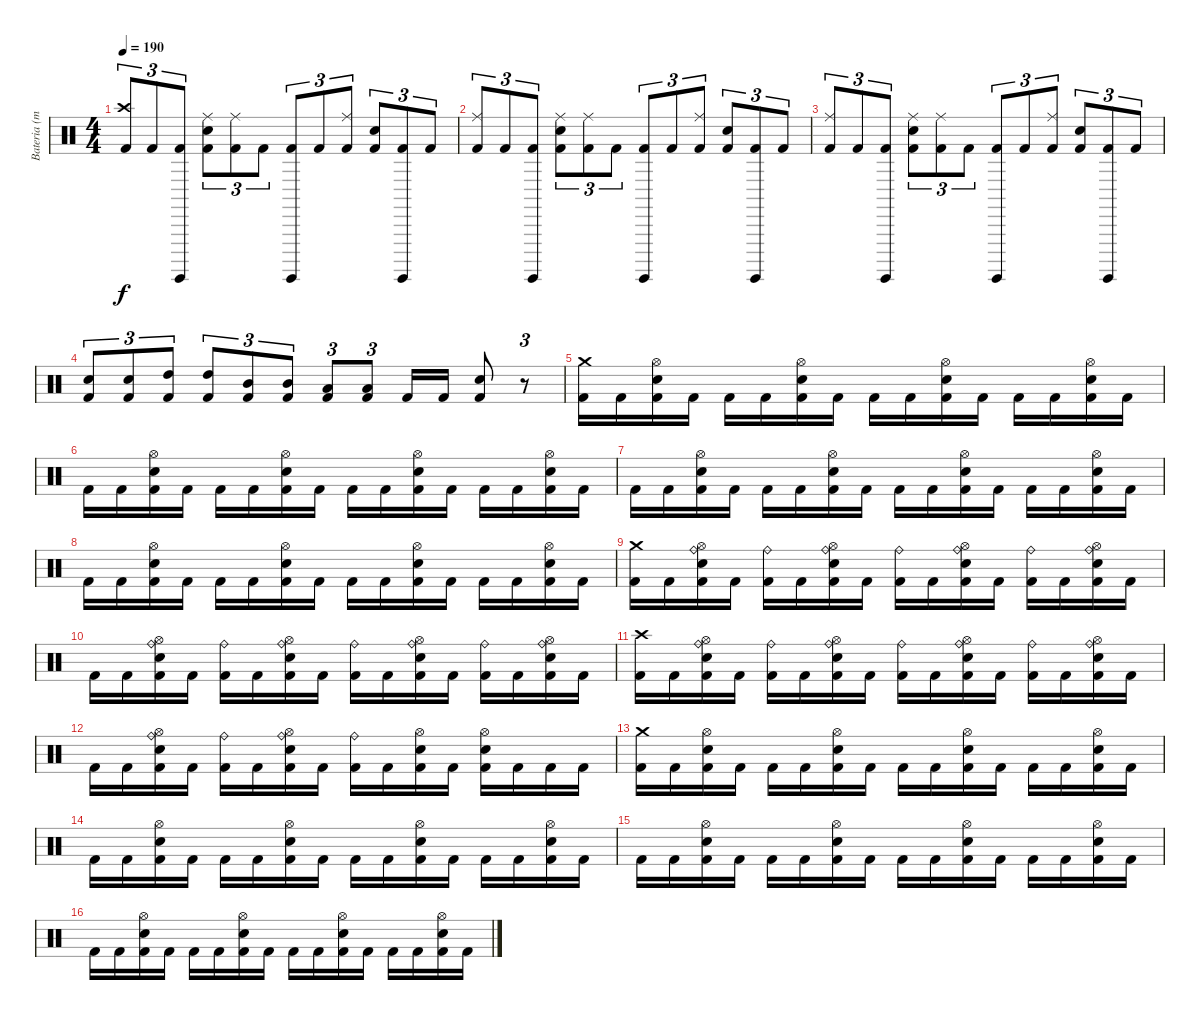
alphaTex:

\track ("Bateria (mestre Aquiles Priester)" "Bateria (m") {instrument percussion}
\staff {score}
\articulation defaults
\ts (4 4)
\tempo 190
\clef neutral
\ks c
("Kick (hit) 2" "Crash high (hit)").8{tu (3 2) dy f} "Kick (hit) 2".8{tu (3 2)} ("Kick (hit) 2" "Surdo (hit)").8{tu (3 2)} ("Kick (hit) 2" "Electric Snare (hit)" "Ride (middle)").8{tu (3 2)} ("Kick (hit) 2" "Ride (middle)").8{tu (3 2)} "Kick (hit) 2".8{tu (3 2)} ("Kick (hit) 2" "Surdo (hit)").8{tu (3 2)} "Kick (hit) 2".8{tu (3 2)} ("Kick (hit) 2" "Ride (middle)").8{tu (3 2)} ("Kick (hit) 2" "Electric Snare (hit)").8{tu (3 2)} ("Kick (hit) 2" "Surdo (hit)").8{tu (3 2)} "Kick (hit) 2".8{tu (3 2)} |
("Kick (hit) 2" "Ride (middle)").8{tu (3 2)} "Kick (hit) 2".8{tu (3 2)} ("Kick (hit) 2" "Surdo (hit)").8{tu (3 2)} ("Kick (hit) 2" "Electric Snare (hit)" "Ride (middle)").8{tu (3 2)} ("Kick (hit) 2" "Ride (middle)").8{tu (3 2)} "Kick (hit) 2".8{tu (3 2)} ("Kick (hit) 2" "Surdo (hit)").8{tu (3 2)} "Kick (hit) 2".8{tu (3 2)} ("Kick (hit) 2" "Ride (middle)").8{tu (3 2)} ("Kick (hit) 2" "Electric Snare (hit)").8{tu (3 2)} ("Kick (hit) 2" "Surdo (hit)").8{tu (3 2)} "Kick (hit) 2".8{tu (3 2)} |
("Kick (hit) 2" "Ride (middle)").8{tu (3 2)} "Kick (hit) 2".8{tu (3 2)} ("Kick (hit) 2" "Surdo (hit)").8{tu (3 2)} ("Kick (hit) 2" "Electric Snare (hit)" "Ride (middle)").8{tu (3 2)} ("Kick (hit) 2" "Ride (middle)").8{tu (3 2)} "Kick (hit) 2".8{tu (3 2)} ("Kick (hit) 2" "Surdo (hit)").8{tu (3 2)} "Kick (hit) 2".8{tu (3 2)} ("Kick (hit) 2" "Ride (middle)").8{tu (3 2)} ("Kick (hit) 2" "Electric Snare (hit)").8{tu (3 2)} ("Kick (hit) 2" "Surdo (hit)").8{tu (3 2)} "Kick (hit) 2".8{tu (3 2)} |
("Kick (hit) 2" "Electric Snare (hit)").8{tu (3 2)} ("Kick (hit) 2" "Electric Snare (hit)").8{tu (3 2)} ("Kick (hit) 2" "High Tom (hit)").8{tu (3 2)} ("Kick (hit) 2" "High Tom (hit)").8{tu (3 2)} ("Kick (hit) 2" "Mid Tom (hit)").8{tu (3 2)} ("Kick (hit) 2" "Mid Tom (hit)").8{tu (3 2)} ("Kick (hit) 2" "Low Tom (hit)").8{tu (3 2)} ("Kick (hit) 2" "Low Tom (hit)").8{tu (3 2)} "Kick (hit) 2".16 "Kick (hit) 2".16 ("Kick (hit) 2" "Electric Snare (hit)").8 r.8{tu (3 2)} |
("Kick (hit) 2" "Crash medium (hit)").16 "Kick (hit) 2".16 ("Kick (hit) 2" "Electric Snare (hit)" "Hi-Hat (open)").16 "Kick (hit) 2".16 "Kick (hit) 2".16 "Kick (hit) 2".16 ("Kick (hit) 2" "Electric Snare (hit)" "Hi-Hat (open)").16 "Kick (hit) 2".16 "Kick (hit) 2".16 "Kick (hit) 2".16 ("Kick (hit) 2" "Electric Snare (hit)" "Hi-Hat (open)").16 "Kick (hit) 2".16 "Kick (hit) 2".16 "Kick (hit) 2".16 ("Kick (hit) 2" "Electric Snare (hit)" "Hi-Hat (open)").16 "Kick (hit) 2".16 |
"Kick (hit) 2".16 "Kick (hit) 2".16 ("Kick (hit) 2" "Electric Snare (hit)" "Hi-Hat (open)").16 "Kick (hit) 2".16 "Kick (hit) 2".16 "Kick (hit) 2".16 ("Kick (hit) 2" "Electric Snare (hit)" "Hi-Hat (open)").16 "Kick (hit) 2".16 "Kick (hit) 2".16 "Kick (hit) 2".16 ("Kick (hit) 2" "Electric Snare (hit)" "Hi-Hat (open)").16 "Kick (hit) 2".16 "Kick (hit) 2".16 "Kick (hit) 2".16 ("Kick (hit) 2" "Electric Snare (hit)" "Hi-Hat (open)").16 "Kick (hit) 2".16 |
"Kick (hit) 2".16 "Kick (hit) 2".16 ("Kick (hit) 2" "Electric Snare (hit)" "Hi-Hat (open)").16 "Kick (hit) 2".16 "Kick (hit) 2".16 "Kick (hit) 2".16 ("Kick (hit) 2" "Electric Snare (hit)" "Hi-Hat (open)").16 "Kick (hit) 2".16 "Kick (hit) 2".16 "Kick (hit) 2".16 ("Kick (hit) 2" "Electric Snare (hit)" "Hi-Hat (open)").16 "Kick (hit) 2".16 "Kick (hit) 2".16 "Kick (hit) 2".16 ("Kick (hit) 2" "Electric Snare (hit)" "Hi-Hat (open)").16 "Kick (hit) 2".16 |
"Kick (hit) 2".16 "Kick (hit) 2".16 ("Kick (hit) 2" "Electric Snare (hit)" "Hi-Hat (open)").16 "Kick (hit) 2".16 "Kick (hit) 2".16 "Kick (hit) 2".16 ("Kick (hit) 2" "Electric Snare (hit)" "Hi-Hat (open)").16 "Kick (hit) 2".16 "Kick (hit) 2".16 "Kick (hit) 2".16 ("Kick (hit) 2" "Electric Snare (hit)" "Hi-Hat (open)").16 "Kick (hit) 2".16 "Kick (hit) 2".16 "Kick (hit) 2".16 ("Kick (hit) 2" "Electric Snare (hit)" "Hi-Hat (open)").16 "Kick (hit) 2".16 |
("Kick (hit) 2" "Crash medium (hit)").16 "Kick (hit) 2".16 ("Kick (hit) 2" "Electric Snare (hit)" "Hi-Hat (open)" "Ride (bell)").16 "Kick (hit) 2".16 ("Kick (hit) 2" "Ride (bell)").16 "Kick (hit) 2".16 ("Kick (hit) 2" "Electric Snare (hit)" "Hi-Hat (open)" "Ride (bell)").16 "Kick (hit) 2".16 ("Kick (hit) 2" "Ride (bell)").16 "Kick (hit) 2".16 ("Kick (hit) 2" "Electric Snare (hit)" "Hi-Hat (open)" "Ride (bell)").16 "Kick (hit) 2".16 ("Kick (hit) 2" "Ride (bell)").16 "Kick (hit) 2".16 ("Kick (hit) 2" "Electric Snare (hit)" "Hi-Hat (open)" "Ride (bell)").16 "Kick (hit) 2".16 |
"Kick (hit) 2".16 "Kick (hit) 2".16 ("Kick (hit) 2" "Electric Snare (hit)" "Hi-Hat (open)" "Ride (bell)").16 "Kick (hit) 2".16 ("Kick (hit) 2" "Ride (bell)").16 "Kick (hit) 2".16 ("Kick (hit) 2" "Electric Snare (hit)" "Hi-Hat (open)" "Ride (bell)").16 "Kick (hit) 2".16 ("Kick (hit) 2" "Ride (bell)").16 "Kick (hit) 2".16 ("Kick (hit) 2" "Electric Snare (hit)" "Hi-Hat (open)" "Ride (bell)").16 "Kick (hit) 2".16 ("Kick (hit) 2" "Ride (bell)").16 "Kick (hit) 2".16 ("Kick (hit) 2" "Electric Snare (hit)" "Hi-Hat (open)" "Ride (bell)").16 "Kick (hit) 2".16 |
("Kick (hit) 2" "Crash high (hit)").16 "Kick (hit) 2".16 ("Kick (hit) 2" "Electric Snare (hit)" "Hi-Hat (open)" "Ride (bell)").16 "Kick (hit) 2".16 ("Kick (hit) 2" "Ride (bell)").16 "Kick (hit) 2".16 ("Kick (hit) 2" "Electric Snare (hit)" "Hi-Hat (open)" "Ride (bell)").16 "Kick (hit) 2".16 ("Kick (hit) 2" "Ride (bell)").16 "Kick (hit) 2".16 ("Kick (hit) 2" "Electric Snare (hit)" "Hi-Hat (open)" "Ride (bell)").16 "Kick (hit) 2".16 ("Kick (hit) 2" "Ride (bell)").16 "Kick (hit) 2".16 ("Kick (hit) 2" "Electric Snare (hit)" "Hi-Hat (open)" "Ride (bell)").16 "Kick (hit) 2".16 |
"Kick (hit) 2".16 "Kick (hit) 2".16 ("Kick (hit) 2" "Electric Snare (hit)" "Hi-Hat (open)" "Ride (bell)").16 "Kick (hit) 2".16 ("Kick (hit) 2" "Ride (bell)").16 "Kick (hit) 2".16 ("Kick (hit) 2" "Electric Snare (hit)" "Hi-Hat (open)" "Ride (bell)").16 "Kick (hit) 2".16 ("Kick (hit) 2" "Ride (bell)").16 "Kick (hit) 2".16 ("Kick (hit) 2" "Electric Snare (hit)" "Hi-Hat (open)").16 "Kick (hit) 2".16 ("Kick (hit) 2" "Electric Snare (hit)" "Hi-Hat (open)").16 "Kick (hit) 2".16 "Kick (hit) 2".16 "Kick (hit) 2".16 |
("Kick (hit) 2" "Crash medium (hit)").16 "Kick (hit) 2".16 ("Kick (hit) 2" "Electric Snare (hit)" "Hi-Hat (open)").16 "Kick (hit) 2".16 "Kick (hit) 2".16 "Kick (hit) 2".16 ("Kick (hit) 2" "Electric Snare (hit)" "Hi-Hat (open)").16 "Kick (hit) 2".16 "Kick (hit) 2".16 "Kick (hit) 2".16 ("Kick (hit) 2" "Electric Snare (hit)" "Hi-Hat (open)").16 "Kick (hit) 2".16 "Kick (hit) 2".16 "Kick (hit) 2".16 ("Kick (hit) 2" "Electric Snare (hit)" "Hi-Hat (open)").16 "Kick (hit) 2".16 |
"Kick (hit) 2".16 "Kick (hit) 2".16 ("Kick (hit) 2" "Electric Snare (hit)" "Hi-Hat (open)").16 "Kick (hit) 2".16 "Kick (hit) 2".16 "Kick (hit) 2".16 ("Kick (hit) 2" "Electric Snare (hit)" "Hi-Hat (open)").16 "Kick (hit) 2".16 "Kick (hit) 2".16 "Kick (hit) 2".16 ("Kick (hit) 2" "Electric Snare (hit)" "Hi-Hat (open)").16 "Kick (hit) 2".16 "Kick (hit) 2".16 "Kick (hit) 2".16 ("Kick (hit) 2" "Electric Snare (hit)" "Hi-Hat (open)").16 "Kick (hit) 2".16 |
"Kick (hit) 2".16 "Kick (hit) 2".16 ("Kick (hit) 2" "Electric Snare (hit)" "Hi-Hat (open)").16 "Kick (hit) 2".16 "Kick (hit) 2".16 "Kick (hit) 2".16 ("Kick (hit) 2" "Electric Snare (hit)" "Hi-Hat (open)").16 "Kick (hit) 2".16 "Kick (hit) 2".16 "Kick (hit) 2".16 ("Kick (hit) 2" "Electric Snare (hit)" "Hi-Hat (open)").16 "Kick (hit) 2".16 "Kick (hit) 2".16 "Kick (hit) 2".16 ("Kick (hit) 2" "Electric Snare (hit)" "Hi-Hat (open)").16 "Kick (hit) 2".16 |
"Kick (hit) 2".16 "Kick (hit) 2".16 ("Kick (hit) 2" "Electric Snare (hit)" "Hi-Hat (open)").16 "Kick (hit) 2".16 "Kick (hit) 2".16 "Kick (hit) 2".16 ("Kick (hit) 2" "Electric Snare (hit)" "Hi-Hat (open)").16 "Kick (hit) 2".16 "Kick (hit) 2".16 "Kick (hit) 2".16 ("Kick (hit) 2" "Electric Snare (hit)" "Hi-Hat (open)").16 "Kick (hit) 2".16 "Kick (hit) 2".16 "Kick (hit) 2".16 ("Kick (hit) 2" "Electric Snare (hit)" "Hi-Hat (open)").16 "Kick (hit) 2".16
